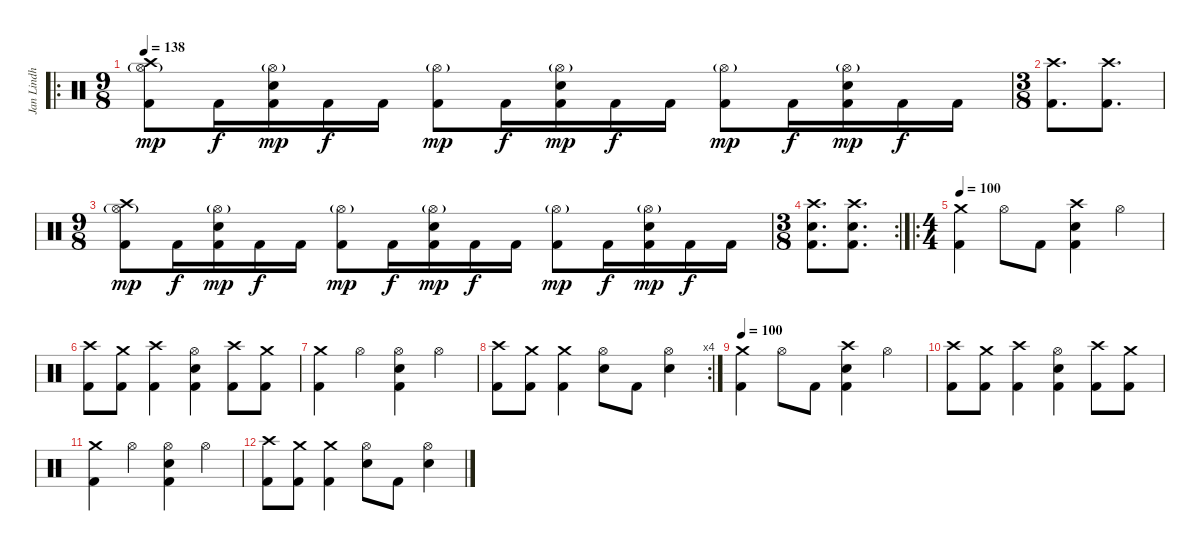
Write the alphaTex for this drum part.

\track ("Jan Lindh" "Jan Lindh") {instrument percussion}
\staff {score}
\articulation defaults
\ro
\ts (9 8)
\tempo 138
\clef neutral
\ks c
("Crash high (hit)" "Hi-Hat (open)"{g} "Kick (hit) 2").8{dy mp} "Kick (hit) 2".16{dy f} ("Hi-Hat (open)"{g} "Electric Snare (hit)" "Kick (hit) 2").16{dy mp} "Kick (hit) 2".16{dy f} "Kick (hit) 2".16 ("Hi-Hat (open)"{g} "Kick (hit) 2").8{dy mp} "Kick (hit) 2".16{dy f} ("Hi-Hat (open)"{g} "Electric Snare (hit)" "Kick (hit) 2").16{dy mp} "Kick (hit) 2".16{dy f} "Kick (hit) 2".16 ("Hi-Hat (open)"{g} "Kick (hit) 2").8{dy mp} "Kick (hit) 2".16{dy f} ("Hi-Hat (open)"{g} "Electric Snare (hit)" "Kick (hit) 2").16{dy mp} "Kick (hit) 2".16{dy f} "Kick (hit) 2".16 |
\ts (3 8)
("Crash high (hit)" "Kick (hit) 2").8{d} ("Crash high (hit)" "Kick (hit) 2").8{d} |
\ts (9 8)
("Crash high (hit)" "Hi-Hat (open)"{g} "Kick (hit) 2").8{dy mp} "Kick (hit) 2".16{dy f} ("Hi-Hat (open)"{g} "Electric Snare (hit)" "Kick (hit) 2").16{dy mp} "Kick (hit) 2".16{dy f} "Kick (hit) 2".16 ("Hi-Hat (open)"{g} "Kick (hit) 2").8{dy mp} "Kick (hit) 2".16{dy f} ("Hi-Hat (open)"{g} "Electric Snare (hit)" "Kick (hit) 2").16{dy mp} "Kick (hit) 2".16{dy f} "Kick (hit) 2".16 ("Hi-Hat (open)"{g} "Kick (hit) 2").8{dy mp} "Kick (hit) 2".16{dy f} ("Hi-Hat (open)"{g} "Electric Snare (hit)" "Kick (hit) 2").16{dy mp} "Kick (hit) 2".16{dy f} "Kick (hit) 2".16 |
\rc 2
\ts (3 8)
("Crash high (hit)" "Electric Snare (hit)" "Kick (hit) 2").8{d} ("Crash high (hit)" "Electric Snare (hit)" "Kick (hit) 2").8{d} |
\ro
\ts (4 4)
\tempo 100
("Crash medium (hit)" "Kick (hit) 2").4 "Hi-Hat (open)".8 "Kick (hit) 2".8 ("Crash high (hit)" "Electric Snare (hit)" "Kick (hit) 2").4 "Hi-Hat (open)".4 |
("Crash high (hit)" "Kick (hit) 2").8 ("Crash medium (hit)" "Kick (hit) 2").8 ("Crash high (hit)" "Kick (hit) 2").4 ("Hi-Hat (open)" "Electric Snare (hit)" "Kick (hit) 2").4 ("Crash high (hit)" "Kick (hit) 2").8 ("Crash medium (hit)" "Kick (hit) 2").8 |
("Crash medium (hit)" "Kick (hit) 2").4 "Hi-Hat (open)".4 ("Hi-Hat (open)" "Electric Snare (hit)" "Kick (hit) 2").4 "Hi-Hat (open)".4 |
\rc 4
("Crash high (hit)" "Kick (hit) 2").8 ("Crash medium (hit)" "Kick (hit) 2").8 ("Crash medium (hit)" "Kick (hit) 2").4 ("Hi-Hat (open)" "Electric Snare (hit)").8 "Kick (hit) 2".8 ("Hi-Hat (open)" "Electric Snare (hit)").4 |
\tempo 100
("Crash medium (hit)" "Kick (hit) 2").4 "Hi-Hat (open)".8 "Kick (hit) 2".8 ("Crash high (hit)" "Electric Snare (hit)" "Kick (hit) 2").4 "Hi-Hat (open)".4 |
("Crash high (hit)" "Kick (hit) 2").8 ("Crash medium (hit)" "Kick (hit) 2").8 ("Crash high (hit)" "Kick (hit) 2").4 ("Hi-Hat (open)" "Electric Snare (hit)" "Kick (hit) 2").4 ("Crash high (hit)" "Kick (hit) 2").8 ("Crash medium (hit)" "Kick (hit) 2").8 |
("Crash medium (hit)" "Kick (hit) 2").4 "Hi-Hat (open)".4 ("Hi-Hat (open)" "Electric Snare (hit)" "Kick (hit) 2").4 "Hi-Hat (open)".4 |
("Crash high (hit)" "Kick (hit) 2").8 ("Crash medium (hit)" "Kick (hit) 2").8 ("Crash medium (hit)" "Kick (hit) 2").4 ("Hi-Hat (open)" "Electric Snare (hit)").8 "Kick (hit) 2".8 ("Hi-Hat (open)" "Electric Snare (hit)").4
